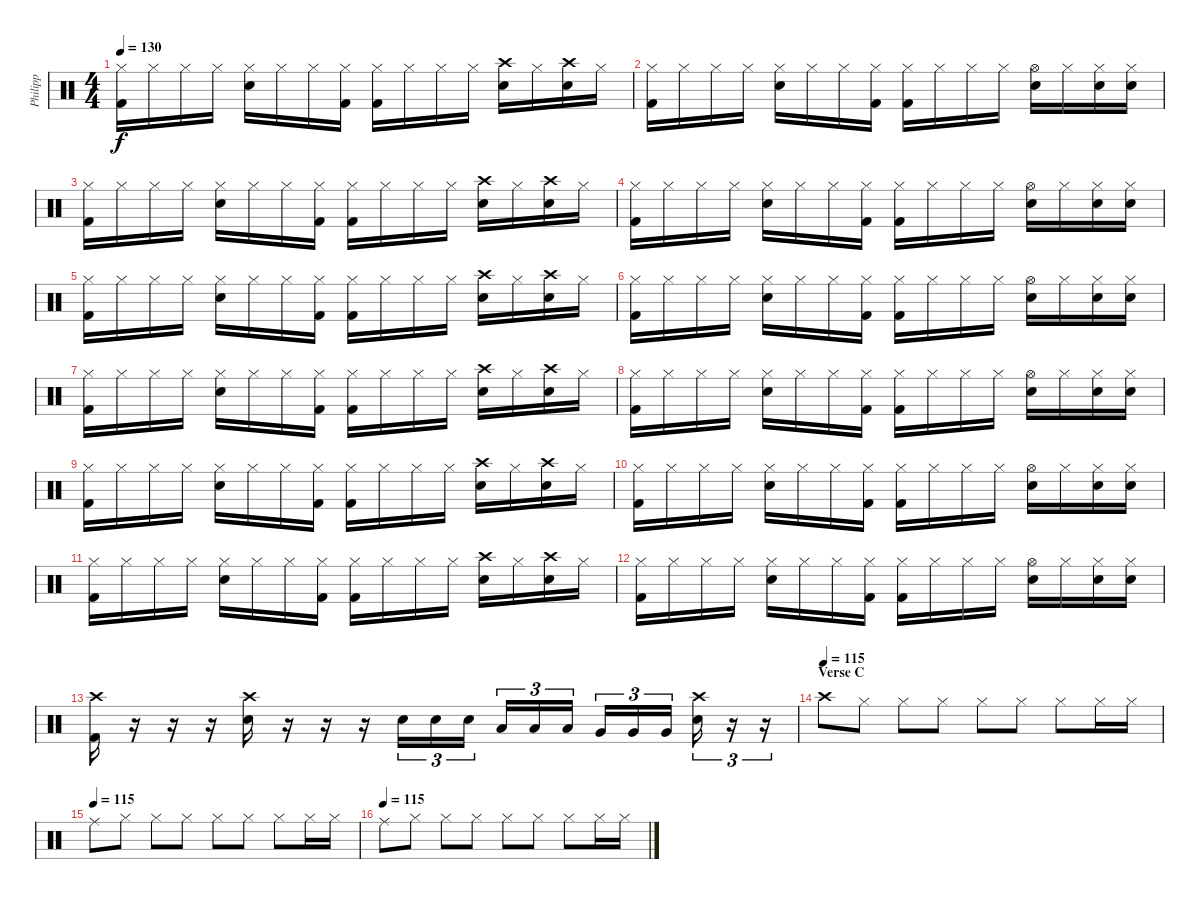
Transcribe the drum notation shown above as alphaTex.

\track ("Philipp" "Philipp") {instrument percussion}
\staff {score}
\articulation defaults
\ts (4 4)
\tempo 130
\clef neutral
\ks c
("Hi-Hat (closed)" "Kick (hit) 2").16{dy f} "Hi-Hat (closed)".16 "Hi-Hat (closed)".16 "Hi-Hat (closed)".16 ("Hi-Hat (closed)" "Electric Snare (hit)").16 "Hi-Hat (closed)".16 "Hi-Hat (closed)".16 ("Hi-Hat (closed)" "Kick (hit) 2").16 ("Hi-Hat (closed)" "Kick (hit) 2").16 "Hi-Hat (closed)".16 "Hi-Hat (closed)".16 "Hi-Hat (closed)".16 ("Crash high (hit)" "Electric Snare (hit)").16 "Hi-Hat (closed)".16 ("Crash high (hit)" "Electric Snare (hit)").16 "Hi-Hat (closed)".16 |
("Hi-Hat (closed)" "Kick (hit) 2").16 "Hi-Hat (closed)".16 "Hi-Hat (closed)".16 "Hi-Hat (closed)".16 ("Hi-Hat (closed)" "Electric Snare (hit)").16 "Hi-Hat (closed)".16 "Hi-Hat (closed)".16 ("Hi-Hat (closed)" "Kick (hit) 2").16 ("Hi-Hat (closed)" "Kick (hit) 2").16 "Hi-Hat (closed)".16 "Hi-Hat (closed)".16 "Hi-Hat (closed)".16 ("Hi-Hat (open)" "Electric Snare (hit)").16 "Hi-Hat (closed)".16 ("Hi-Hat (closed)" "Electric Snare (hit)").16 ("Hi-Hat (closed)" "Electric Snare (hit)").16 |
("Hi-Hat (closed)" "Kick (hit) 2").16 "Hi-Hat (closed)".16 "Hi-Hat (closed)".16 "Hi-Hat (closed)".16 ("Hi-Hat (closed)" "Electric Snare (hit)").16 "Hi-Hat (closed)".16 "Hi-Hat (closed)".16 ("Hi-Hat (closed)" "Kick (hit) 2").16 ("Hi-Hat (closed)" "Kick (hit) 2").16 "Hi-Hat (closed)".16 "Hi-Hat (closed)".16 "Hi-Hat (closed)".16 ("Crash high (hit)" "Electric Snare (hit)").16 "Hi-Hat (closed)".16 ("Crash high (hit)" "Electric Snare (hit)").16 "Hi-Hat (closed)".16 |
("Hi-Hat (closed)" "Kick (hit) 2").16 "Hi-Hat (closed)".16 "Hi-Hat (closed)".16 "Hi-Hat (closed)".16 ("Hi-Hat (closed)" "Electric Snare (hit)").16 "Hi-Hat (closed)".16 "Hi-Hat (closed)".16 ("Hi-Hat (closed)" "Kick (hit) 2").16 ("Hi-Hat (closed)" "Kick (hit) 2").16 "Hi-Hat (closed)".16 "Hi-Hat (closed)".16 "Hi-Hat (closed)".16 ("Hi-Hat (open)" "Electric Snare (hit)").16 "Hi-Hat (closed)".16 ("Hi-Hat (closed)" "Electric Snare (hit)").16 ("Hi-Hat (closed)" "Electric Snare (hit)").16 |
("Hi-Hat (closed)" "Kick (hit) 2").16 "Hi-Hat (closed)".16 "Hi-Hat (closed)".16 "Hi-Hat (closed)".16 ("Hi-Hat (closed)" "Electric Snare (hit)").16 "Hi-Hat (closed)".16 "Hi-Hat (closed)".16 ("Hi-Hat (closed)" "Kick (hit) 2").16 ("Hi-Hat (closed)" "Kick (hit) 2").16 "Hi-Hat (closed)".16 "Hi-Hat (closed)".16 "Hi-Hat (closed)".16 ("Crash high (hit)" "Electric Snare (hit)").16 "Hi-Hat (closed)".16 ("Crash high (hit)" "Electric Snare (hit)").16 "Hi-Hat (closed)".16 |
("Hi-Hat (closed)" "Kick (hit) 2").16 "Hi-Hat (closed)".16 "Hi-Hat (closed)".16 "Hi-Hat (closed)".16 ("Hi-Hat (closed)" "Electric Snare (hit)").16 "Hi-Hat (closed)".16 "Hi-Hat (closed)".16 ("Hi-Hat (closed)" "Kick (hit) 2").16 ("Hi-Hat (closed)" "Kick (hit) 2").16 "Hi-Hat (closed)".16 "Hi-Hat (closed)".16 "Hi-Hat (closed)".16 ("Hi-Hat (open)" "Electric Snare (hit)").16 "Hi-Hat (closed)".16 ("Hi-Hat (closed)" "Electric Snare (hit)").16 ("Hi-Hat (closed)" "Electric Snare (hit)").16 |
("Hi-Hat (closed)" "Kick (hit) 2").16 "Hi-Hat (closed)".16 "Hi-Hat (closed)".16 "Hi-Hat (closed)".16 ("Hi-Hat (closed)" "Electric Snare (hit)").16 "Hi-Hat (closed)".16 "Hi-Hat (closed)".16 ("Hi-Hat (closed)" "Kick (hit) 2").16 ("Hi-Hat (closed)" "Kick (hit) 2").16 "Hi-Hat (closed)".16 "Hi-Hat (closed)".16 "Hi-Hat (closed)".16 ("Crash high (hit)" "Electric Snare (hit)").16 "Hi-Hat (closed)".16 ("Crash high (hit)" "Electric Snare (hit)").16 "Hi-Hat (closed)".16 |
("Hi-Hat (closed)" "Kick (hit) 2").16 "Hi-Hat (closed)".16 "Hi-Hat (closed)".16 "Hi-Hat (closed)".16 ("Hi-Hat (closed)" "Electric Snare (hit)").16 "Hi-Hat (closed)".16 "Hi-Hat (closed)".16 ("Hi-Hat (closed)" "Kick (hit) 2").16 ("Hi-Hat (closed)" "Kick (hit) 2").16 "Hi-Hat (closed)".16 "Hi-Hat (closed)".16 "Hi-Hat (closed)".16 ("Hi-Hat (open)" "Electric Snare (hit)").16 "Hi-Hat (closed)".16 ("Hi-Hat (closed)" "Electric Snare (hit)").16 ("Hi-Hat (closed)" "Electric Snare (hit)").16 |
("Hi-Hat (closed)" "Kick (hit) 2").16 "Hi-Hat (closed)".16 "Hi-Hat (closed)".16 "Hi-Hat (closed)".16 ("Hi-Hat (closed)" "Electric Snare (hit)").16 "Hi-Hat (closed)".16 "Hi-Hat (closed)".16 ("Hi-Hat (closed)" "Kick (hit) 2").16 ("Hi-Hat (closed)" "Kick (hit) 2").16 "Hi-Hat (closed)".16 "Hi-Hat (closed)".16 "Hi-Hat (closed)".16 ("Crash high (hit)" "Electric Snare (hit)").16 "Hi-Hat (closed)".16 ("Crash high (hit)" "Electric Snare (hit)").16 "Hi-Hat (closed)".16 |
("Hi-Hat (closed)" "Kick (hit) 2").16 "Hi-Hat (closed)".16 "Hi-Hat (closed)".16 "Hi-Hat (closed)".16 ("Hi-Hat (closed)" "Electric Snare (hit)").16 "Hi-Hat (closed)".16 "Hi-Hat (closed)".16 ("Hi-Hat (closed)" "Kick (hit) 2").16 ("Hi-Hat (closed)" "Kick (hit) 2").16 "Hi-Hat (closed)".16 "Hi-Hat (closed)".16 "Hi-Hat (closed)".16 ("Hi-Hat (open)" "Electric Snare (hit)").16 "Hi-Hat (closed)".16 ("Hi-Hat (closed)" "Electric Snare (hit)").16 ("Hi-Hat (closed)" "Electric Snare (hit)").16 |
("Hi-Hat (closed)" "Kick (hit) 2").16 "Hi-Hat (closed)".16 "Hi-Hat (closed)".16 "Hi-Hat (closed)".16 ("Hi-Hat (closed)" "Electric Snare (hit)").16 "Hi-Hat (closed)".16 "Hi-Hat (closed)".16 ("Hi-Hat (closed)" "Kick (hit) 2").16 ("Hi-Hat (closed)" "Kick (hit) 2").16 "Hi-Hat (closed)".16 "Hi-Hat (closed)".16 "Hi-Hat (closed)".16 ("Crash high (hit)" "Electric Snare (hit)").16 "Hi-Hat (closed)".16 ("Crash high (hit)" "Electric Snare (hit)").16 "Hi-Hat (closed)".16 |
("Hi-Hat (closed)" "Kick (hit) 2").16 "Hi-Hat (closed)".16 "Hi-Hat (closed)".16 "Hi-Hat (closed)".16 ("Hi-Hat (closed)" "Electric Snare (hit)").16 "Hi-Hat (closed)".16 "Hi-Hat (closed)".16 ("Hi-Hat (closed)" "Kick (hit) 2").16 ("Hi-Hat (closed)" "Kick (hit) 2").16 "Hi-Hat (closed)".16 "Hi-Hat (closed)".16 "Hi-Hat (closed)".16 ("Hi-Hat (open)" "Electric Snare (hit)").16 "Hi-Hat (closed)".16 ("Hi-Hat (closed)" "Electric Snare (hit)").16 ("Hi-Hat (closed)" "Electric Snare (hit)").16 |
("Crash high (hit)" "Kick (hit) 2").16 r.16 r.16 r.16 ("Crash high (hit)" "Electric Snare (hit)").16 r.16 r.16 r.16 "Electric Snare (hit)".16{tu (3 2)} "Electric Snare (hit)".16{tu (3 2)} "Electric Snare (hit)".16{tu (3 2)} "Low Tom (hit)".16{tu (3 2)} "Low Tom (hit)".16{tu (3 2)} "Low Tom (hit)".16{tu (3 2)} "Very Low Tom (hit)".16{tu (3 2)} "Very Low Tom (hit)".16{tu (3 2)} "Very Low Tom (hit)".16{tu (3 2)} ("Crash high (hit)" "Electric Snare (hit)").16{tu (3 2)} r.16{tu (3 2)} r.16{tu (3 2)} |
\section ("" "Verse C")
\tempo (115)
"Crash high (hit)".8 "Hi-Hat (closed)".8 "Hi-Hat (closed)".8 "Hi-Hat (closed)".8 "Hi-Hat (closed)".8 "Hi-Hat (closed)".8 "Hi-Hat (closed)".8 "Hi-Hat (closed)".16 "Hi-Hat (closed)".16 |
\tempo (115)
"Ride (middle)".8 "Hi-Hat (closed)".8 "Hi-Hat (closed)".8 "Hi-Hat (closed)".8 "Hi-Hat (closed)".8 "Hi-Hat (closed)".8 "Hi-Hat (closed)".8 "Hi-Hat (closed)".16 "Hi-Hat (closed)".16 |
\tempo (115)
"Ride (middle)".8 "Hi-Hat (closed)".8 "Hi-Hat (closed)".8 "Hi-Hat (closed)".8 "Hi-Hat (closed)".8 "Hi-Hat (closed)".8 "Hi-Hat (closed)".8 "Hi-Hat (closed)".16 "Hi-Hat (closed)".16
